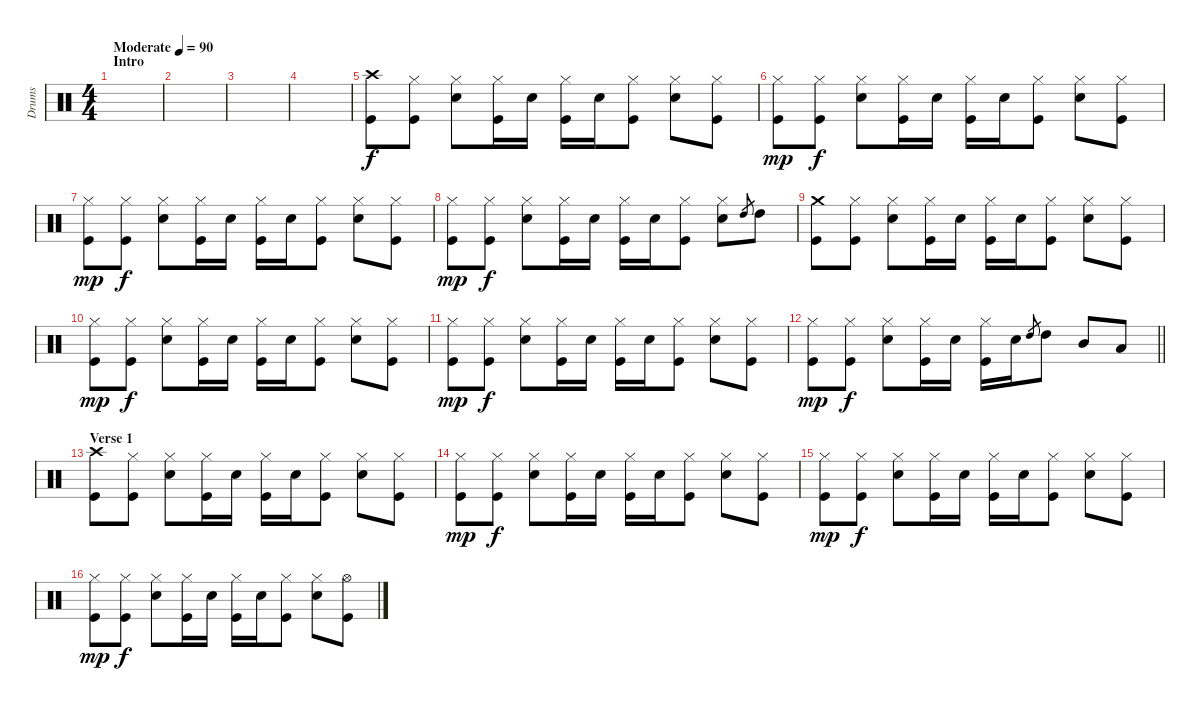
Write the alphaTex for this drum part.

\track ("Drums" "Drums") {instrument percussion}
\staff {score}
\articulation defaults
\ts (4 4)
\section ("" "Intro")
\tempo (90 "Moderate")
\clef neutral
\ks c
|
|
|
|
("Kick (hit)" "Crash high (hit)").8 ("Hi-Hat (closed)" "Kick (hit)").8 ("Snare (hit) 2" "Hi-Hat (closed)").8 ("Kick (hit)" "Hi-Hat (closed)").16 "Snare (hit) 2".16 ("Kick (hit)" "Hi-Hat (closed)").16 "Snare (hit) 2".16 ("Kick (hit)" "Hi-Hat (closed)").8 ("Snare (hit) 2" "Hi-Hat (closed)").8 ("Kick (hit)" "Hi-Hat (closed)").8 |
("Kick (hit)" "Hi-Hat (closed)").8{dy mp} ("Hi-Hat (closed)" "Kick (hit)").8{dy f} ("Snare (hit) 2" "Hi-Hat (closed)").8 ("Kick (hit)" "Hi-Hat (closed)").16 "Snare (hit) 2".16 ("Kick (hit)" "Hi-Hat (closed)").16 "Snare (hit) 2".16 ("Kick (hit)" "Hi-Hat (closed)").8 ("Snare (hit) 2" "Hi-Hat (closed)").8 ("Kick (hit)" "Hi-Hat (closed)").8 |
("Kick (hit)" "Hi-Hat (closed)").8{dy mp} ("Hi-Hat (closed)" "Kick (hit)").8{dy f} ("Snare (hit) 2" "Hi-Hat (closed)").8 ("Kick (hit)" "Hi-Hat (closed)").16 "Snare (hit) 2".16 ("Kick (hit)" "Hi-Hat (closed)").16 "Snare (hit) 2".16 ("Kick (hit)" "Hi-Hat (closed)").8 ("Snare (hit) 2" "Hi-Hat (closed)").8 ("Kick (hit)" "Hi-Hat (closed)").8 |
("Kick (hit)" "Hi-Hat (closed)").8{dy mp} ("Hi-Hat (closed)" "Kick (hit)").8{dy f} ("Snare (hit) 2" "Hi-Hat (closed)").8 ("Kick (hit)" "Hi-Hat (closed)").16 "Snare (hit) 2".16 ("Kick (hit)" "Hi-Hat (closed)").16 "Snare (hit) 2".16 ("Kick (hit)" "Hi-Hat (closed)").8 ("Snare (hit) 2" "Hi-Hat (closed)").8 "High Tom (hit)".8{gr} "High Tom (hit)".8 |
("Kick (hit)" "Crash medium (hit)").8 ("Hi-Hat (closed)" "Kick (hit)").8 ("Snare (hit) 2" "Hi-Hat (closed)").8 ("Kick (hit)" "Hi-Hat (closed)").16 "Snare (hit) 2".16 ("Kick (hit)" "Hi-Hat (closed)").16 "Snare (hit) 2".16 ("Kick (hit)" "Hi-Hat (closed)").8 ("Snare (hit) 2" "Hi-Hat (closed)").8 ("Kick (hit)" "Hi-Hat (closed)").8 |
("Kick (hit)" "Hi-Hat (closed)").8{dy mp} ("Hi-Hat (closed)" "Kick (hit)").8{dy f} ("Snare (hit) 2" "Hi-Hat (closed)").8 ("Kick (hit)" "Hi-Hat (closed)").16 "Snare (hit) 2".16 ("Kick (hit)" "Hi-Hat (closed)").16 "Snare (hit) 2".16 ("Kick (hit)" "Hi-Hat (closed)").8 ("Snare (hit) 2" "Hi-Hat (closed)").8 ("Kick (hit)" "Hi-Hat (closed)").8 |
("Kick (hit)" "Hi-Hat (closed)").8{dy mp} ("Hi-Hat (closed)" "Kick (hit)").8{dy f} ("Snare (hit) 2" "Hi-Hat (closed)").8 ("Kick (hit)" "Hi-Hat (closed)").16 "Snare (hit) 2".16 ("Kick (hit)" "Hi-Hat (closed)").16 "Snare (hit) 2".16 ("Kick (hit)" "Hi-Hat (closed)").8 ("Snare (hit) 2" "Hi-Hat (closed)").8 ("Kick (hit)" "Hi-Hat (closed)").8 |
\barLineRight lightlight
("Kick (hit)" "Hi-Hat (closed)").8{dy mp} ("Hi-Hat (closed)" "Kick (hit)").8{dy f} ("Snare (hit) 2" "Hi-Hat (closed)").8 ("Kick (hit)" "Hi-Hat (closed)").16 "Snare (hit) 2".16 ("Kick (hit)" "Hi-Hat (closed)").16 "Snare (hit) 2".16 "High Tom (hit)".8{gr} "High Tom (hit)".8 "Mid Tom (hit)".8 "Low Tom (hit)".8 |
\section ("" "Verse 1")
("Kick (hit)" "Crash high (hit)").8 ("Hi-Hat (closed)" "Kick (hit)").8 ("Snare (hit) 2" "Hi-Hat (closed)").8 ("Kick (hit)" "Hi-Hat (closed)").16 "Snare (hit) 2".16 ("Kick (hit)" "Hi-Hat (closed)").16 "Snare (hit) 2".16 ("Kick (hit)" "Hi-Hat (closed)").8 ("Snare (hit) 2" "Hi-Hat (closed)").8 ("Kick (hit)" "Hi-Hat (closed)").8 |
("Kick (hit)" "Hi-Hat (closed)").8{dy mp} ("Hi-Hat (closed)" "Kick (hit)").8{dy f} ("Snare (hit) 2" "Hi-Hat (closed)").8 ("Kick (hit)" "Hi-Hat (closed)").16 "Snare (hit) 2".16 ("Kick (hit)" "Hi-Hat (closed)").16 "Snare (hit) 2".16 ("Kick (hit)" "Hi-Hat (closed)").8 ("Snare (hit) 2" "Hi-Hat (closed)").8 ("Kick (hit)" "Hi-Hat (closed)").8 |
("Kick (hit)" "Hi-Hat (closed)").8{dy mp} ("Hi-Hat (closed)" "Kick (hit)").8{dy f} ("Snare (hit) 2" "Hi-Hat (closed)").8 ("Kick (hit)" "Hi-Hat (closed)").16 "Snare (hit) 2".16 ("Kick (hit)" "Hi-Hat (closed)").16 "Snare (hit) 2".16 ("Kick (hit)" "Hi-Hat (closed)").8 ("Snare (hit) 2" "Hi-Hat (closed)").8 ("Kick (hit)" "Hi-Hat (closed)").8 |
("Kick (hit)" "Hi-Hat (closed)").8{dy mp} ("Hi-Hat (closed)" "Kick (hit)").8{dy f} ("Snare (hit) 2" "Hi-Hat (closed)").8 ("Kick (hit)" "Hi-Hat (closed)").16 "Snare (hit) 2".16 ("Kick (hit)" "Hi-Hat (closed)").16 "Snare (hit) 2".16 ("Kick (hit)" "Hi-Hat (closed)").8 ("Snare (hit) 2" "Hi-Hat (closed)").8 ("Kick (hit)" "Hi-Hat (open)").8
